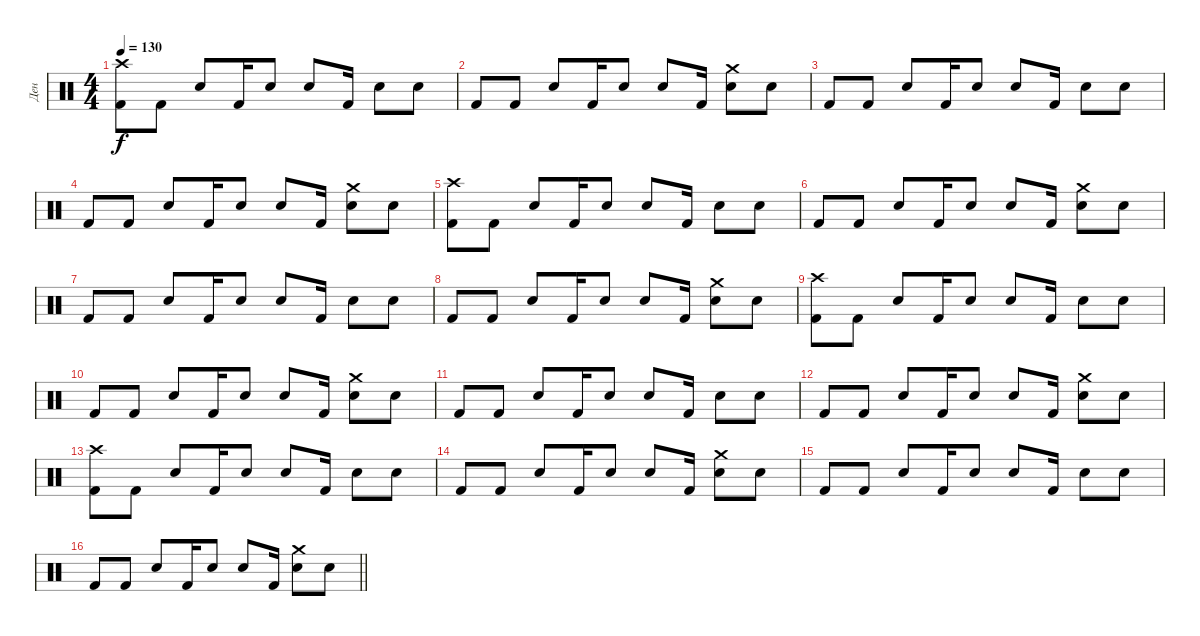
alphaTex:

\track ("Ден" "Ден") {instrument percussion}
\staff {score}
\articulation defaults
\ts (4 4)
\tempo 130
\clef neutral
\ks c
("Crash high (hit)" "Kick (hit) 2").8{dy f} "Kick (hit) 2".8 "Snare (hit) 2".8 "Kick (hit) 2".16 "Snare (hit) 2".8 "Snare (hit) 2".8 "Kick (hit) 2".16 "Snare (hit) 2".8 "Snare (hit)".8 |
"Kick (hit) 2".8 "Kick (hit) 2".8 "Snare (hit) 2".8 "Kick (hit) 2".16 "Snare (hit) 2".8 "Snare (hit) 2".8 "Kick (hit) 2".16 ("Crash medium (hit)" "Snare (hit) 2").8 "Snare (hit)".8 |
"Kick (hit) 2".8 "Kick (hit) 2".8 "Snare (hit) 2".8 "Kick (hit) 2".16 "Snare (hit) 2".8 "Snare (hit) 2".8 "Kick (hit) 2".16 "Snare (hit) 2".8 "Snare (hit)".8 |
"Kick (hit) 2".8 "Kick (hit) 2".8 "Snare (hit) 2".8 "Kick (hit) 2".16 "Snare (hit) 2".8 "Snare (hit) 2".8 "Kick (hit) 2".16 ("Crash medium (hit)" "Snare (hit) 2").8 "Snare (hit)".8 |
("Crash high (hit)" "Kick (hit) 2").8 "Kick (hit) 2".8 "Snare (hit) 2".8 "Kick (hit) 2".16 "Snare (hit) 2".8 "Snare (hit) 2".8 "Kick (hit) 2".16 "Snare (hit) 2".8 "Snare (hit)".8 |
"Kick (hit) 2".8 "Kick (hit) 2".8 "Snare (hit) 2".8 "Kick (hit) 2".16 "Snare (hit) 2".8 "Snare (hit) 2".8 "Kick (hit) 2".16 ("Crash medium (hit)" "Snare (hit) 2").8 "Snare (hit)".8 |
"Kick (hit) 2".8 "Kick (hit) 2".8 "Snare (hit) 2".8 "Kick (hit) 2".16 "Snare (hit) 2".8 "Snare (hit) 2".8 "Kick (hit) 2".16 "Snare (hit) 2".8 "Snare (hit)".8 |
"Kick (hit) 2".8 "Kick (hit) 2".8 "Snare (hit) 2".8 "Kick (hit) 2".16 "Snare (hit) 2".8 "Snare (hit) 2".8 "Kick (hit) 2".16 ("Crash medium (hit)" "Snare (hit) 2").8 "Snare (hit)".8 |
("Crash high (hit)" "Kick (hit) 2").8 "Kick (hit) 2".8 "Snare (hit) 2".8 "Kick (hit) 2".16 "Snare (hit) 2".8 "Snare (hit) 2".8 "Kick (hit) 2".16 "Snare (hit) 2".8 "Snare (hit)".8 |
"Kick (hit) 2".8 "Kick (hit) 2".8 "Snare (hit) 2".8 "Kick (hit) 2".16 "Snare (hit) 2".8 "Snare (hit) 2".8 "Kick (hit) 2".16 ("Crash medium (hit)" "Snare (hit) 2").8 "Snare (hit)".8 |
"Kick (hit) 2".8 "Kick (hit) 2".8 "Snare (hit) 2".8 "Kick (hit) 2".16 "Snare (hit) 2".8 "Snare (hit) 2".8 "Kick (hit) 2".16 "Snare (hit) 2".8 "Snare (hit)".8 |
"Kick (hit) 2".8 "Kick (hit) 2".8 "Snare (hit) 2".8 "Kick (hit) 2".16 "Snare (hit) 2".8 "Snare (hit) 2".8 "Kick (hit) 2".16 ("Crash medium (hit)" "Snare (hit) 2").8 "Snare (hit)".8 |
("Crash high (hit)" "Kick (hit) 2").8 "Kick (hit) 2".8 "Snare (hit) 2".8 "Kick (hit) 2".16 "Snare (hit) 2".8 "Snare (hit) 2".8 "Kick (hit) 2".16 "Snare (hit) 2".8 "Snare (hit)".8 |
"Kick (hit) 2".8 "Kick (hit) 2".8 "Snare (hit) 2".8 "Kick (hit) 2".16 "Snare (hit) 2".8 "Snare (hit) 2".8 "Kick (hit) 2".16 ("Crash medium (hit)" "Snare (hit) 2").8 "Snare (hit)".8 |
"Kick (hit) 2".8 "Kick (hit) 2".8 "Snare (hit) 2".8 "Kick (hit) 2".16 "Snare (hit) 2".8 "Snare (hit) 2".8 "Kick (hit) 2".16 "Snare (hit) 2".8 "Snare (hit)".8 |
\barLineRight lightlight "Kick (hit) 2".8 "Kick (hit) 2".8 "Snare (hit) 2".8 "Kick (hit) 2".16 "Snare (hit) 2".8 "Snare (hit) 2".8 "Kick (hit) 2".16
("Crash medium (hit)" "Snare (hit) 2").8 "Snare (hit)".8
